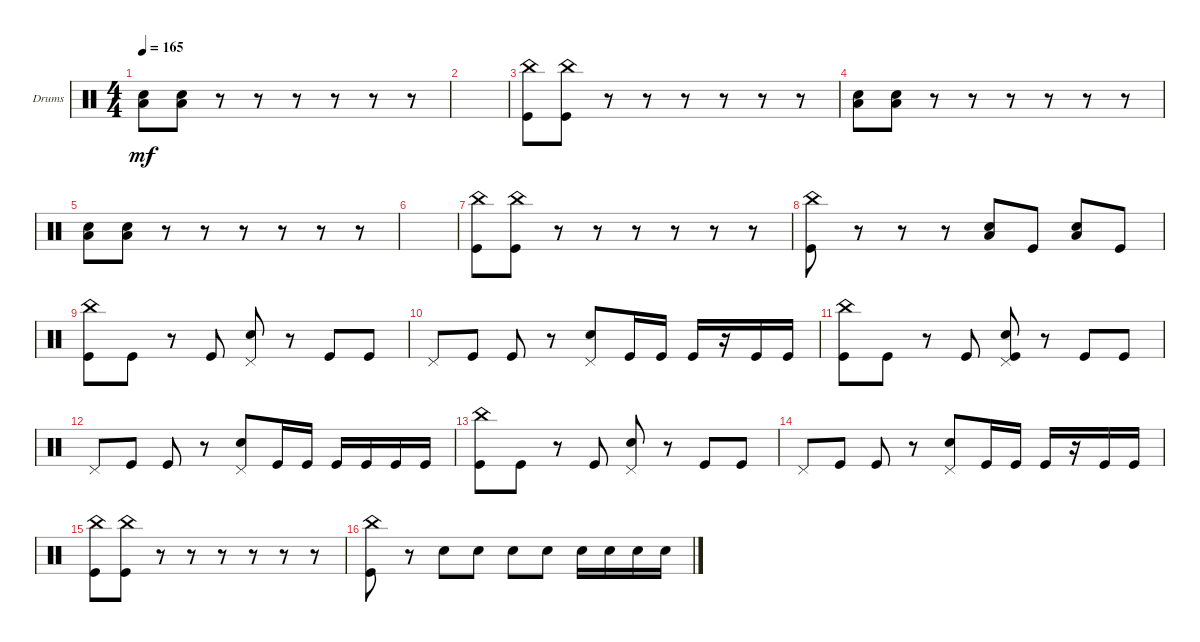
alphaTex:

\defaultSystemsLayout 4
\bracketExtendMode groupsimilarinstruments
\firstSystemTrackNameOrientation horizontal
\otherSystemsTrackNameOrientation horizontal
\track ("Drumkit" "Drums") {instrument percussion}
\staff {score}
\articulation defaults
\ts (4 4)
\tempo 165
\clef neutral
\scale
0.474178
\ks c
("Low Tom (hit)" "Snare (hit) 2").8{dy mf} ("Snare (hit) 2" "Low Tom (hit)").8 r.8 r.8 r.8 r.8 r.8 r.8 |
\scale
0.262911 |
\scale
0.262911 ("Kick (hit)" "China (hit)").8 ("Kick (hit)" "China (hit)").8 r.8 r.8 r.8 r.8 r.8 r.8 |
\scale
0.333333 ("Low Tom (hit)" "Snare (hit) 2").8 ("Snare (hit) 2" "Low Tom (hit)").8 r.8 r.8 r.8 r.8 r.8 r.8 |
\scale
0.333333 ("Low Tom (hit)" "Snare (hit) 2").8 ("Snare (hit) 2" "Low Tom (hit)").8 r.8 r.8 r.8 r.8 r.8 r.8 |
\scale
0.333333 |
("Kick (hit)" "China (hit)").8 ("Kick (hit)" "China (hit)").8 r.8 r.8 r.8 r.8 r.8 r.8 |
("Kick (hit)" "China (hit)").8 r.8 r.8 r.8 ("Snare (hit) 2" "Low Tom (hit)").8 "Kick (hit)".8 ("Snare (hit) 2" "Low Tom (hit)").8 "Kick (hit)".8 |
("Kick (hit)" "China (hit)").8 "Kick (hit)".8 r.8 "Kick (hit)".8 ("Pedal Hi-Hat (hit)" "Snare (hit) 2").8 r.8 "Kick (hit)".8 "Kick (hit)".8 |
"Pedal Hi-Hat (hit)".8 "Kick (hit)".8 "Kick (hit)".8 r.8 ("Snare (hit) 2" "Pedal Hi-Hat (hit)").8 "Kick (hit)".16 "Kick (hit)".16 "Kick (hit)".16 r.16 "Kick (hit)".16 "Kick (hit)".16 |
("Kick (hit)" "China (hit)").8 "Kick (hit)".8 r.8 "Kick (hit)".8 ("Kick (hit)" "Snare (hit) 2" "Pedal Hi-Hat (hit)").8 r.8 "Kick (hit)".8 "Kick (hit)".8 |
"Pedal Hi-Hat (hit)".8 "Kick (hit)".8 "Kick (hit)".8 r.8 ("Snare (hit) 2" "Pedal Hi-Hat (hit)").8 "Kick (hit)".16 "Kick (hit)".16 "Kick (hit)".16 "Kick (hit)".16 "Kick (hit)".16 "Kick (hit)".16 |
("Kick (hit)" "China (hit)").8 "Kick (hit)".8 r.8 "Kick (hit)".8 ("Pedal Hi-Hat (hit)" "Snare (hit) 2").8 r.8 "Kick (hit)".8 "Kick (hit)".8 |
"Pedal Hi-Hat (hit)".8 "Kick (hit)".8 "Kick (hit)".8 r.8 ("Snare (hit) 2" "Pedal Hi-Hat (hit)").8 "Kick (hit)".16 "Kick (hit)".16 "Kick (hit)".16 r.16 "Kick (hit)".16 "Kick (hit)".16 |
("Kick (hit)" "China (hit)").8 ("Kick (hit)" "China (hit)").8 r.8 r.8 r.8 r.8 r.8 r.8 |
("Kick (hit)" "China (hit)").8 r.8 "Snare (hit) 2".8 "Snare (hit) 2".8 "Snare (hit) 2".8 "Snare (hit) 2".8 "Snare (hit) 2".16 "Snare (hit) 2".16 "Snare (hit) 2".16 "Snare (hit) 2".16
